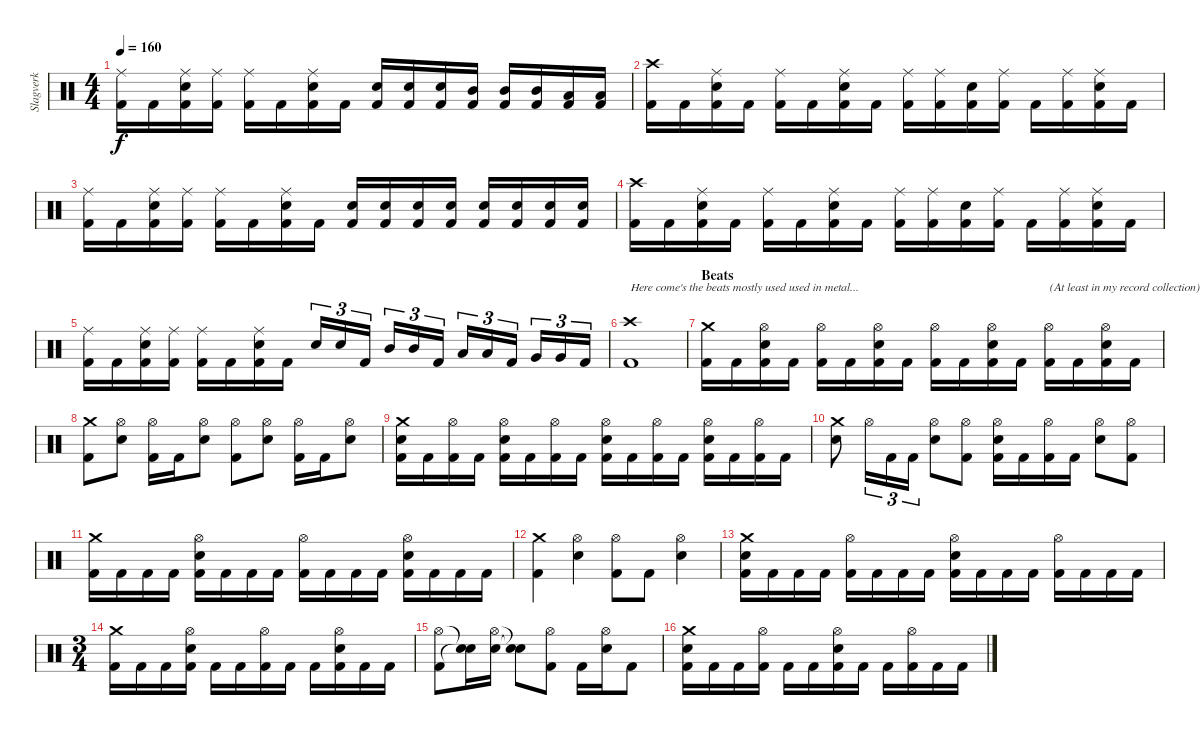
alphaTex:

\track ("Slagverk" "Slagverk") {instrument percussion}
\staff {score}
\articulation defaults
\ts (4 4)
\tempo 160
\clef neutral
\ks c
("Ride (middle)" "Kick (hit) 2").16{dy f} "Kick (hit) 2".16 ("Ride (middle)" "Snare (hit) 2" "Kick (hit) 2").16 ("Ride (middle)" "Kick (hit) 2").16 ("Ride (middle)" "Kick (hit) 2").16 "Kick (hit) 2".16 ("Ride (middle)" "Snare (hit) 2" "Kick (hit) 2").16 "Kick (hit) 2".16 ("Snare (hit) 2" "Kick (hit) 2").16 ("Snare (hit) 2" "Kick (hit) 2").16 ("Snare (hit) 2" "Kick (hit) 2").16 ("Mid Tom (hit)" "Kick (hit) 2").16 ("Mid Tom (hit)" "Kick (hit) 2").16 ("Mid Tom (hit)" "Kick (hit) 2").16 ("Low Tom (hit)" "Kick (hit) 2").16 ("Low Tom (hit)" "Kick (hit) 2").16 |
("Crash high (hit)" "Kick (hit) 2").16 "Kick (hit) 2".16 ("Ride (middle)" "Snare (hit) 2" "Kick (hit) 2").16 "Kick (hit) 2".16 ("Ride (middle)" "Kick (hit) 2").16 "Kick (hit) 2".16 ("Ride (middle)" "Snare (hit) 2" "Kick (hit) 2").16 "Kick (hit) 2".16 ("Ride (middle)" "Kick (hit) 2").16 ("Ride (middle)" "Kick (hit) 2").16 ("Snare (hit) 2" "Kick (hit) 2").16 ("Ride (middle)" "Kick (hit) 2").16 "Kick (hit) 2".16 ("Ride (middle)" "Kick (hit) 2").16 ("Ride (middle)" "Snare (hit) 2" "Kick (hit) 2").16 "Kick (hit) 2".16 |
("Ride (middle)" "Kick (hit) 2").16 "Kick (hit) 2".16 ("Ride (middle)" "Snare (hit) 2" "Kick (hit) 2").16 ("Ride (middle)" "Kick (hit) 2").16 ("Ride (middle)" "Kick (hit) 2").16 "Kick (hit) 2".16 ("Ride (middle)" "Snare (hit) 2" "Kick (hit) 2").16 "Kick (hit) 2".16 ("Snare (hit) 2" "Kick (hit) 2").16 ("Snare (hit) 2" "Kick (hit) 2").16 ("Snare (hit) 2" "Kick (hit) 2").16 ("Snare (hit) 2" "Kick (hit) 2").16 ("Snare (hit) 2" "Kick (hit) 2").16 ("Snare (hit) 2" "Kick (hit) 2").16 ("Snare (hit) 2" "Kick (hit) 2").16 ("Snare (hit) 2" "Kick (hit) 2").16 |
("Crash high (hit)" "Kick (hit) 2").16 "Kick (hit) 2".16 ("Ride (middle)" "Snare (hit) 2" "Kick (hit) 2").16 "Kick (hit) 2".16 ("Ride (middle)" "Kick (hit) 2").16 "Kick (hit) 2".16 ("Ride (middle)" "Snare (hit) 2" "Kick (hit) 2").16 "Kick (hit) 2".16 ("Ride (middle)" "Kick (hit) 2").16 ("Ride (middle)" "Kick (hit) 2").16 ("Snare (hit) 2" "Kick (hit) 2").16 ("Ride (middle)" "Kick (hit) 2").16 "Kick (hit) 2".16 ("Ride (middle)" "Kick (hit) 2").16 ("Ride (middle)" "Snare (hit) 2" "Kick (hit) 2").16 "Kick (hit) 2".16 |
("Ride (middle)" "Kick (hit) 2").16 "Kick (hit) 2".16 ("Ride (middle)" "Snare (hit) 2" "Kick (hit) 2").16 ("Ride (middle)" "Kick (hit) 2").16 ("Ride (middle)" "Kick (hit) 2").16 "Kick (hit) 2".16 ("Ride (middle)" "Snare (hit) 2" "Kick (hit) 2").16 "Kick (hit) 2".16 "Snare (hit) 2".16{tu (3 2)} "Snare (hit) 2".16{tu (3 2)} "Kick (hit) 2".16{tu (3 2)} "Mid Tom (hit)".16{tu (3 2)} "Mid Tom (hit)".16{tu (3 2)} "Kick (hit) 2".16{tu (3 2)} "Low Tom (hit)".16{tu (3 2)} "Low Tom (hit)".16{tu (3 2)} "Kick (hit) 2".16{tu (3 2)} "Very Low Tom (hit)".16{tu (3 2)} "Very Low Tom (hit)".16{tu (3 2)} "Kick (hit) 2".16{tu (3 2)} |
("Crash high (hit)" "Kick (hit) 2").1{txt "Here come's the beats mostly used used in metal..."} |
\section ("" "Beats")
("Crash medium (hit)" "Kick (hit) 2").16 "Kick (hit) 2".16 ("Hi-Hat (open)" "Snare (hit) 2" "Kick (hit) 2").16 "Kick (hit) 2".16 ("Hi-Hat (open)" "Kick (hit) 2").16 "Kick (hit) 2".16 ("Hi-Hat (open)" "Snare (hit) 2" "Kick (hit) 2").16 "Kick (hit) 2".16 ("Hi-Hat (open)" "Kick (hit) 2").16 "Kick (hit) 2".16 ("Hi-Hat (open)" "Snare (hit) 2" "Kick (hit) 2").16 "Kick (hit) 2".16 ("Hi-Hat (open)" "Kick (hit) 2").16{txt "(At least in my record collection)..."} "Kick (hit) 2".16 ("Hi-Hat (open)" "Snare (hit) 2" "Kick (hit) 2").16 "Kick (hit) 2".16 |
("Crash medium (hit)" "Kick (hit) 2").8 ("Hi-Hat (open)" "Snare (hit) 2").8 ("Hi-Hat (open)" "Kick (hit) 2").16 "Kick (hit) 2".16 ("Hi-Hat (open)" "Snare (hit) 2").8 ("Hi-Hat (open)" "Kick (hit) 2").8 ("Hi-Hat (open)" "Snare (hit) 2").8 ("Hi-Hat (open)" "Kick (hit) 2").16 "Kick (hit) 2".16 ("Hi-Hat (open)" "Snare (hit) 2").8 |
("Crash medium (hit)" "Snare (hit) 2" "Kick (hit) 2").16 "Kick (hit) 2".16 ("Hi-Hat (open)" "Kick (hit) 2").16 "Kick (hit) 2".16 ("Hi-Hat (open)" "Snare (hit) 2" "Kick (hit) 2").16 "Kick (hit) 2".16 ("Hi-Hat (open)" "Kick (hit) 2").16 "Kick (hit) 2".16 ("Hi-Hat (open)" "Snare (hit) 2" "Kick (hit) 2").16 "Kick (hit) 2".16 ("Hi-Hat (open)" "Kick (hit) 2").16 "Kick (hit) 2".16 ("Hi-Hat (open)" "Snare (hit) 2" "Kick (hit) 2").16 "Kick (hit) 2".16 ("Hi-Hat (open)" "Kick (hit) 2").16 "Kick (hit) 2".16 |
("Crash medium (hit)" "Snare (hit) 2").8 "Hi-Hat (open)".16{tu (3 2)} "Kick (hit) 2".16{tu (3 2)} "Kick (hit) 2".16{tu (3 2)} ("Hi-Hat (open)" "Snare (hit) 2").8 ("Hi-Hat (open)" "Kick (hit) 2").8 ("Hi-Hat (open)" "Snare (hit) 2" "Kick (hit) 2").16 "Kick (hit) 2".16 ("Hi-Hat (open)" "Kick (hit) 2").16 "Kick (hit) 2".16 ("Hi-Hat (open)" "Snare (hit) 2").8 ("Hi-Hat (open)" "Kick (hit) 2").8 |
("Crash medium (hit)" "Kick (hit) 2").16 "Kick (hit) 2".16 "Kick (hit) 2".16 "Kick (hit) 2".16 ("Hi-Hat (open)" "Snare (hit) 2" "Kick (hit) 2").16 "Kick (hit) 2".16 "Kick (hit) 2".16 "Kick (hit) 2".16 ("Hi-Hat (open)" "Kick (hit) 2").16 "Kick (hit) 2".16 "Kick (hit) 2".16 "Kick (hit) 2".16 ("Hi-Hat (open)" "Snare (hit) 2" "Kick (hit) 2").16 "Kick (hit) 2".16 "Kick (hit) 2".16 "Kick (hit) 2".16 |
("Crash medium (hit)" "Kick (hit) 2").4 ("Hi-Hat (open)" "Snare (hit) 2").4 ("Hi-Hat (open)" "Kick (hit) 2").8 "Kick (hit) 2".8 ("Hi-Hat (open)" "Snare (hit) 2").4 |
("Crash medium (hit)" "Snare (hit) 2" "Kick (hit) 2").16 "Kick (hit) 2".16 "Kick (hit) 2".16 "Kick (hit) 2".16 ("Hi-Hat (open)" "Kick (hit) 2").16 "Kick (hit) 2".16 "Kick (hit) 2".16 "Kick (hit) 2".16 ("Hi-Hat (open)" "Snare (hit) 2" "Kick (hit) 2").16 "Kick (hit) 2".16 "Kick (hit) 2".16 "Kick (hit) 2".16 ("Hi-Hat (open)" "Kick (hit) 2").16 "Kick (hit) 2".16 "Kick (hit) 2".16 "Kick (hit) 2".16 |
\ts (3 4)
("Crash medium (hit)" "Kick (hit) 2").16 "Kick (hit) 2".16 "Kick (hit) 2".16 ("Hi-Hat (open)" "Snare (hit) 2" "Kick (hit) 2").16 "Kick (hit) 2".16 "Kick (hit) 2".16 ("Hi-Hat (open)" "Kick (hit) 2").16 "Kick (hit) 2".16 "Kick (hit) 2".16 ("Hi-Hat (open)" "Snare (hit) 2" "Kick (hit) 2").16 "Kick (hit) 2".16 "Kick (hit) 2".16 |
("Hi-Hat (open)" "Kick (hit) 2").8 ("Snare (hit)"{t} "Snare (hit)"{t}).16 ("Hi-Hat (open)" "Snare (hit) 2").16 ("Snare (hit)"{t} "Snare (hit)"{t}).8 ("Hi-Hat (open)" "Kick (hit) 2").8 "Kick (hit) 2".16 ("Hi-Hat (open)" "Snare (hit) 2").16 "Kick (hit) 2".8 |
("Crash medium (hit)" "Snare (hit) 2" "Kick (hit) 2").16 "Kick (hit) 2".16 "Kick (hit) 2".16 ("Hi-Hat (open)" "Kick (hit) 2").16 "Kick (hit) 2".16 "Kick (hit) 2".16 ("Hi-Hat (open)" "Snare (hit) 2" "Kick (hit) 2").16 "Kick (hit) 2".16 "Kick (hit) 2".16 ("Hi-Hat (open)" "Kick (hit) 2").16 "Kick (hit) 2".16 "Kick (hit) 2".16
